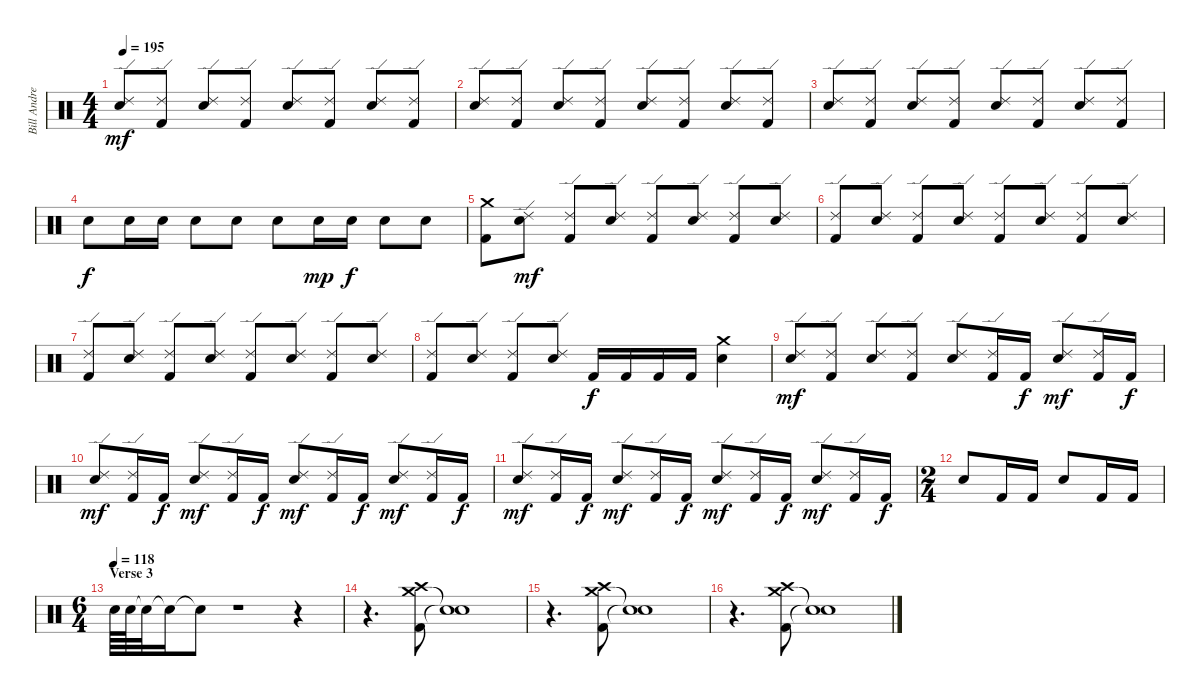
\track ("Bill Andrews" "Bill Andre") {instrument percussion}
\staff {score}
\articulation defaults
\ts (4 4)
\tempo 195
\clef neutral
\ks c
("Ride (edge) 2" "Snare (hit) 2").8{dy mf} ("Kick (hit) 2" "Ride (edge) 2").8 ("Ride (edge) 2" "Snare (hit) 2").8 ("Kick (hit) 2" "Ride (edge) 2").8 ("Ride (edge) 2" "Snare (hit) 2").8 ("Kick (hit) 2" "Ride (edge) 2").8 ("Ride (edge) 2" "Snare (hit) 2").8 ("Kick (hit) 2" "Ride (edge) 2").8 |
("Ride (edge) 2" "Snare (hit) 2").8 ("Kick (hit) 2" "Ride (edge) 2").8 ("Ride (edge) 2" "Snare (hit) 2").8 ("Kick (hit) 2" "Ride (edge) 2").8 ("Ride (edge) 2" "Snare (hit) 2").8 ("Kick (hit) 2" "Ride (edge) 2").8 ("Ride (edge) 2" "Snare (hit) 2").8 ("Kick (hit) 2" "Ride (edge) 2").8 |
("Ride (edge) 2" "Snare (hit) 2").8 ("Kick (hit) 2" "Ride (edge) 2").8 ("Ride (edge) 2" "Snare (hit) 2").8 ("Kick (hit) 2" "Ride (edge) 2").8 ("Ride (edge) 2" "Snare (hit) 2").8 ("Kick (hit) 2" "Ride (edge) 2").8 ("Ride (edge) 2" "Snare (hit) 2").8 ("Kick (hit) 2" "Ride (edge) 2").8 |
"Snare (hit) 2".8{dy f} "Snare (hit) 2".16 "Snare (hit) 2".16 "Snare (hit) 2".8 "Snare (hit) 2".8 "Snare (hit) 2".8 "Snare (hit) 2".16{dy mp} "Snare (hit) 2".16{dy f} "Snare (hit) 2".8 "Snare (hit) 2".8 |
("Kick (hit) 2" "Crash medium (hit)").8 ("Ride (edge) 2" "Snare (hit) 2").8{dy mf} ("Kick (hit) 2" "Ride (edge) 2").8 ("Ride (edge) 2" "Snare (hit) 2").8 ("Kick (hit) 2" "Ride (edge) 2").8 ("Ride (edge) 2" "Snare (hit) 2").8 ("Kick (hit) 2" "Ride (edge) 2").8 ("Ride (edge) 2" "Snare (hit) 2").8 |
("Kick (hit) 2" "Ride (edge) 2").8 ("Ride (edge) 2" "Snare (hit) 2").8 ("Kick (hit) 2" "Ride (edge) 2").8 ("Ride (edge) 2" "Snare (hit) 2").8 ("Kick (hit) 2" "Ride (edge) 2").8 ("Ride (edge) 2" "Snare (hit) 2").8 ("Kick (hit) 2" "Ride (edge) 2").8 ("Ride (edge) 2" "Snare (hit) 2").8 |
("Kick (hit) 2" "Ride (edge) 2").8 ("Ride (edge) 2" "Snare (hit) 2").8 ("Kick (hit) 2" "Ride (edge) 2").8 ("Ride (edge) 2" "Snare (hit) 2").8 ("Kick (hit) 2" "Ride (edge) 2").8 ("Ride (edge) 2" "Snare (hit) 2").8 ("Kick (hit) 2" "Ride (edge) 2").8 ("Ride (edge) 2" "Snare (hit) 2").8 |
("Kick (hit) 2" "Ride (edge) 2").8 ("Ride (edge) 2" "Snare (hit) 2").8 ("Kick (hit) 2" "Ride (edge) 2").8 ("Ride (edge) 2" "Snare (hit) 2").8 "Kick (hit) 2".16{dy f} "Kick (hit) 2".16 "Kick (hit) 2".16 "Kick (hit) 2".16 ("Crash medium (hit)" "Snare (hit) 2").4 |
("Ride (edge) 2" "Snare (hit) 2").8{dy mf} ("Kick (hit) 2" "Ride (edge) 2").8 ("Ride (edge) 2" "Snare (hit) 2").8 ("Kick (hit) 2" "Ride (edge) 2").8 ("Ride (edge) 2" "Snare (hit) 2").8 ("Kick (hit) 2" "Ride (edge) 2").16 "Kick (hit) 2".16{dy f} ("Ride (edge) 2" "Snare (hit) 2").8{dy mf} ("Kick (hit) 2" "Ride (edge) 2").16 "Kick (hit) 2".16{dy f} |
("Ride (edge) 2" "Snare (hit) 2").8{dy mf} ("Kick (hit) 2" "Ride (edge) 2").16 "Kick (hit) 2".16{dy f} ("Ride (edge) 2" "Snare (hit) 2").8{dy mf} ("Kick (hit) 2" "Ride (edge) 2").16 "Kick (hit) 2".16{dy f} ("Ride (edge) 2" "Snare (hit) 2").8{dy mf} ("Kick (hit) 2" "Ride (edge) 2").16 "Kick (hit) 2".16{dy f} ("Ride (edge) 2" "Snare (hit) 2").8{dy mf} ("Kick (hit) 2" "Ride (edge) 2").16 "Kick (hit) 2".16{dy f} |
("Ride (edge) 2" "Snare (hit) 2").8{dy mf} ("Kick (hit) 2" "Ride (edge) 2").16 "Kick (hit) 2".16{dy f} ("Ride (edge) 2" "Snare (hit) 2").8{dy mf} ("Kick (hit) 2" "Ride (edge) 2").16 "Kick (hit) 2".16{dy f} ("Ride (edge) 2" "Snare (hit) 2").8{dy mf} ("Kick (hit) 2" "Ride (edge) 2").16 "Kick (hit) 2".16{dy f} ("Ride (edge) 2" "Snare (hit) 2").8{dy mf} ("Kick (hit) 2" "Ride (edge) 2").16 "Kick (hit) 2".16{dy f} |
\ts (2 4)
"Snare (hit) 2".8 "Kick (hit) 2".16 "Kick (hit) 2".16 "Snare (hit) 2".8 "Kick (hit) 2".16 "Kick (hit) 2".16 |
\ts (6 4)
\section ("" "Verse 3")
\tempo (118)
"Snare (hit) 2".64 "Snare (hit) 2".64 "Snare (hit)"{t}.32 "Snare (hit)"{t}.16 "Snare (hit)"{t}.8 r.1 r.4 |
r.4{d} ("Kick (hit) 2" "Crash medium (hit)" "Crash high (hit)").8 ("Snare (hit)"{t} "Snare (hit)"{t}).1 |
r.4{d} ("Kick (hit) 2" "Crash medium (hit)" "Crash high (hit)").8 ("Snare (hit)"{t} "Snare (hit)"{t}).1 |
r.4{d} ("Kick (hit) 2" "Crash medium (hit)" "Crash high (hit)").8 ("Snare (hit)"{t} "Snare (hit)"{t}).1
